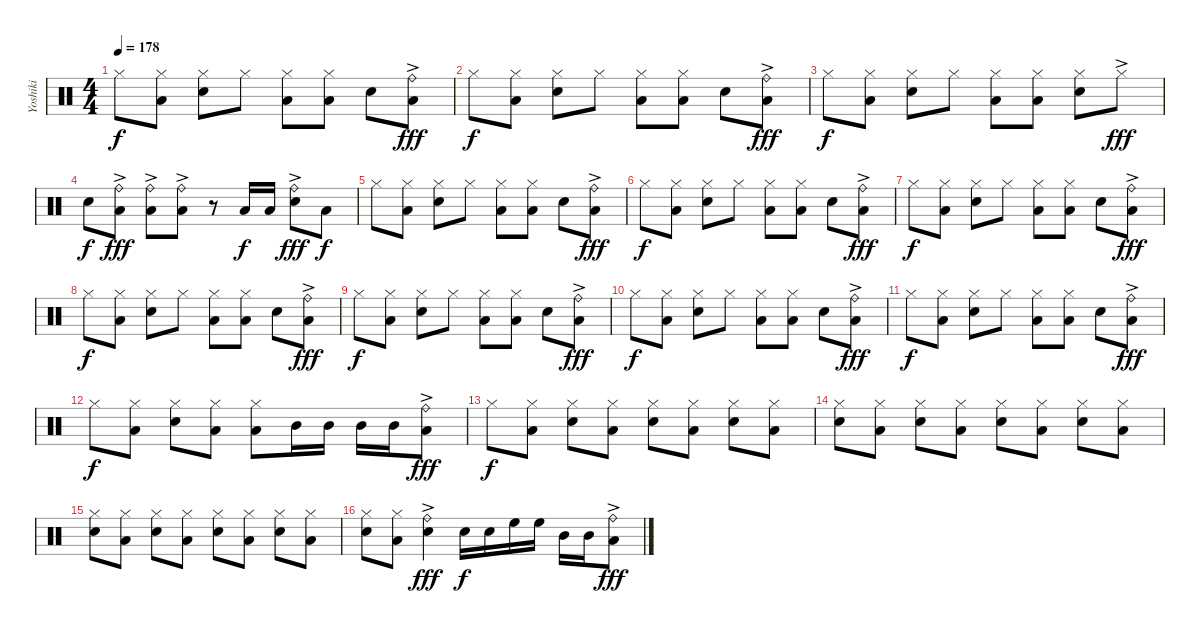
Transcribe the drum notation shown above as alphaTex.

\track ("Yoshiki" "Yoshiki") {instrument percussion}
\staff {score}
\articulation defaults
\ts (4 4)
\tempo 178
\clef neutral
\ks c "Hi-Hat (closed)".8{dy f}
("Hi-Hat (closed)" "Low Floor Tom (hit)").8 ("Hi-Hat (closed)" "Snare (hit) 2").8 "Hi-Hat (closed)".8 ("Hi-Hat (closed)" "Low Floor Tom (hit)").8 ("Hi-Hat (closed)" "Low Floor Tom (hit)").8 "Snare (hit) 2".8 ("Ride (bell)"{ac} "Low Floor Tom (hit)").8{dy fff} |
"Hi-Hat (closed)".8{dy f} ("Hi-Hat (closed)" "Low Floor Tom (hit)").8 ("Hi-Hat (closed)" "Snare (hit) 2").8 "Hi-Hat (closed)".8 ("Hi-Hat (closed)" "Low Floor Tom (hit)").8 ("Hi-Hat (closed)" "Low Floor Tom (hit)").8 "Snare (hit) 2".8 ("Ride (bell)"{ac} "Low Floor Tom (hit)").8{dy fff} |
"Hi-Hat (closed)".8{dy f} ("Hi-Hat (closed)" "Low Floor Tom (hit)").8 ("Hi-Hat (closed)" "Snare (hit) 2").8 "Hi-Hat (closed)".8 ("Hi-Hat (closed)" "Low Floor Tom (hit)").8 ("Hi-Hat (closed)" "Low Floor Tom (hit)").8 ("Hi-Hat (closed)" "Snare (hit) 2").8 "Hi-Hat (closed)"{ac}.8{dy fff} |
"Snare (hit) 2".8{dy f} ("Ride (bell)"{ac} "Low Floor Tom (hit)").8{dy fff} ("Ride (bell)"{ac} "Low Floor Tom (hit)").8 ("Ride (bell)"{ac} "Low Floor Tom (hit)").8 r.8 "Low Floor Tom (hit)".16{dy f} "Low Floor Tom (hit)".16 ("Ride (bell)" "Snare (hit) 2"{ac}).8{dy fff} "Low Floor Tom (hit)".8{dy f} |
"Hi-Hat (closed)".8 ("Hi-Hat (closed)" "Low Floor Tom (hit)").8 ("Hi-Hat (closed)" "Snare (hit) 2").8 "Hi-Hat (closed)".8 ("Hi-Hat (closed)" "Low Floor Tom (hit)").8 ("Hi-Hat (closed)" "Low Floor Tom (hit)").8 "Snare (hit) 2".8 ("Ride (bell)"{ac} "Low Floor Tom (hit)").8{dy fff} |
"Hi-Hat (closed)".8{dy f} ("Hi-Hat (closed)" "Low Floor Tom (hit)").8 ("Hi-Hat (closed)" "Snare (hit) 2").8 "Hi-Hat (closed)".8 ("Hi-Hat (closed)" "Low Floor Tom (hit)").8 ("Hi-Hat (closed)" "Low Floor Tom (hit)").8 "Snare (hit) 2".8 ("Ride (bell)"{ac} "Low Floor Tom (hit)").8{dy fff} |
"Hi-Hat (closed)".8{dy f} ("Hi-Hat (closed)" "Low Floor Tom (hit)").8 ("Hi-Hat (closed)" "Snare (hit) 2").8 "Hi-Hat (closed)".8 ("Hi-Hat (closed)" "Low Floor Tom (hit)").8 ("Hi-Hat (closed)" "Low Floor Tom (hit)").8 "Snare (hit) 2".8 ("Ride (bell)"{ac} "Low Floor Tom (hit)").8{dy fff} |
"Hi-Hat (closed)".8{dy f} ("Hi-Hat (closed)" "Low Floor Tom (hit)").8 ("Hi-Hat (closed)" "Snare (hit) 2").8 "Hi-Hat (closed)".8 ("Hi-Hat (closed)" "Low Floor Tom (hit)").8 ("Hi-Hat (closed)" "Low Floor Tom (hit)").8 "Snare (hit) 2".8 ("Ride (bell)"{ac} "Low Floor Tom (hit)").8{dy fff} |
"Hi-Hat (closed)".8{dy f} ("Hi-Hat (closed)" "Low Floor Tom (hit)").8 ("Hi-Hat (closed)" "Snare (hit) 2").8 "Hi-Hat (closed)".8 ("Hi-Hat (closed)" "Low Floor Tom (hit)").8 ("Hi-Hat (closed)" "Low Floor Tom (hit)").8 "Snare (hit) 2".8 ("Ride (bell)"{ac} "Low Floor Tom (hit)").8{dy fff} |
"Hi-Hat (closed)".8{dy f} ("Hi-Hat (closed)" "Low Floor Tom (hit)").8 ("Hi-Hat (closed)" "Snare (hit) 2").8 "Hi-Hat (closed)".8 ("Hi-Hat (closed)" "Low Floor Tom (hit)").8 ("Hi-Hat (closed)" "Low Floor Tom (hit)").8 "Snare (hit) 2".8 ("Ride (bell)"{ac} "Low Floor Tom (hit)").8{dy fff} |
"Hi-Hat (closed)".8{dy f} ("Hi-Hat (closed)" "Low Floor Tom (hit)").8 ("Hi-Hat (closed)" "Snare (hit) 2").8 "Hi-Hat (closed)".8 ("Hi-Hat (closed)" "Low Floor Tom (hit)").8 ("Hi-Hat (closed)" "Low Floor Tom (hit)").8 "Snare (hit) 2".8 ("Ride (bell)"{ac} "Low Floor Tom (hit)").8{dy fff} |
"Hi-Hat (closed)".8{dy f} ("Hi-Hat (closed)" "Low Floor Tom (hit)").8 ("Hi-Hat (closed)" "Snare (hit) 2").8 ("Hi-Hat (closed)" "Low Floor Tom (hit)").8 ("Hi-Hat (closed)" "Low Floor Tom (hit)").8 "Mid Tom (hit)".16 "Mid Tom (hit)".16 "Mid Tom (hit)".16 "Mid Tom (hit)".16 ("Ride (bell)"{ac} "Low Floor Tom (hit)").8{dy fff} |
"Hi-Hat (closed)".8{dy f} ("Hi-Hat (closed)" "Low Floor Tom (hit)").8 ("Hi-Hat (closed)" "Snare (hit) 2").8 ("Hi-Hat (closed)" "Low Floor Tom (hit)").8 ("Hi-Hat (closed)" "Snare (hit) 2").8 ("Hi-Hat (closed)" "Low Floor Tom (hit)").8 ("Hi-Hat (closed)" "Snare (hit) 2").8 ("Hi-Hat (closed)" "Low Floor Tom (hit)").8 |
("Hi-Hat (closed)" "Snare (hit) 2").8 ("Hi-Hat (closed)" "Low Floor Tom (hit)").8 ("Hi-Hat (closed)" "Snare (hit) 2").8 ("Hi-Hat (closed)" "Low Floor Tom (hit)").8 ("Hi-Hat (closed)" "Snare (hit) 2").8 ("Hi-Hat (closed)" "Low Floor Tom (hit)").8 ("Hi-Hat (closed)" "Snare (hit) 2").8 ("Hi-Hat (closed)" "Low Floor Tom (hit)").8 |
("Hi-Hat (closed)" "Snare (hit) 2").8 ("Hi-Hat (closed)" "Low Floor Tom (hit)").8 ("Hi-Hat (closed)" "Snare (hit) 2").8 ("Hi-Hat (closed)" "Low Floor Tom (hit)").8 ("Hi-Hat (closed)" "Snare (hit) 2").8 ("Hi-Hat (closed)" "Low Floor Tom (hit)").8 ("Hi-Hat (closed)" "Snare (hit) 2").8 ("Hi-Hat (closed)" "Low Floor Tom (hit)").8 |
("Hi-Hat (closed)" "Snare (hit) 2").8 ("Hi-Hat (closed)" "Low Floor Tom (hit)").8 ("Ride (bell)"{ac} "Snare (hit) 2").4{dy fff} "Snare (hit) 2".16{dy f} "Snare (hit) 2".16 "High Floor Tom (hit)".16 "High Floor Tom (hit)".16 "Mid Tom (hit)".16 "Mid Tom (hit)".16 ("Ride (bell)"{ac} "Low Floor Tom (hit)").8{dy fff}
